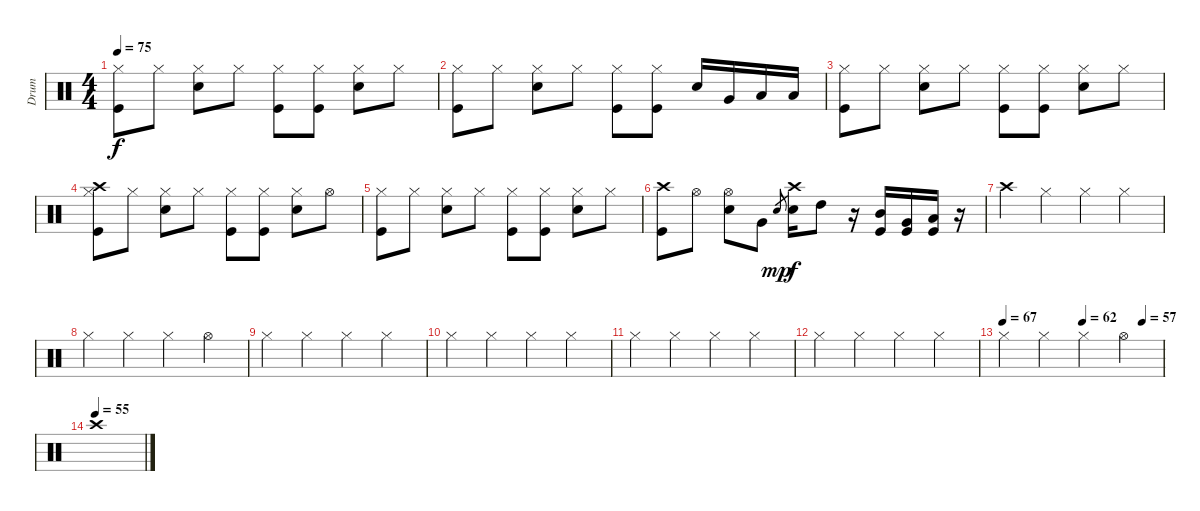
\track ("Drum" "Drum") {instrument percussion}
\staff {score}
\articulation defaults
\ts (4 4)
\tempo 75
\clef neutral
\ks c
("Hi-Hat (closed)" "Kick (hit)").8{dy f} "Hi-Hat (closed)".8 ("Hi-Hat (closed)" "Electric Snare (hit)").8 "Hi-Hat (closed)".8 ("Hi-Hat (closed)" "Kick (hit)").8 ("Hi-Hat (closed)" "Kick (hit)").8 ("Hi-Hat (closed)" "Electric Snare (hit)").8 "Hi-Hat (closed)".8 |
("Hi-Hat (closed)" "Kick (hit)").8 "Hi-Hat (closed)".8 ("Hi-Hat (closed)" "Electric Snare (hit)").8 "Hi-Hat (closed)".8 ("Hi-Hat (closed)" "Kick (hit)").8 ("Hi-Hat (closed)" "Kick (hit)").8 "Electric Snare (hit)".16 "Very Low Tom (hit)".16 "Low Floor Tom (hit)".16 "Low Floor Tom (hit)".16 |
("Hi-Hat (closed)" "Kick (hit)").8 "Hi-Hat (closed)".8 ("Hi-Hat (closed)" "Electric Snare (hit)").8 "Hi-Hat (closed)".8 ("Hi-Hat (closed)" "Kick (hit)").8 ("Hi-Hat (closed)" "Kick (hit)").8 ("Hi-Hat (closed)" "Electric Snare (hit)").8 "Hi-Hat (closed)".8 |
("Hi-Hat (closed)" "Crash high (hit)" "Kick (hit)").8 "Hi-Hat (closed)".8 ("Hi-Hat (closed)" "Electric Snare (hit)").8 "Hi-Hat (closed)".8 ("Hi-Hat (closed)" "Kick (hit)").8 ("Hi-Hat (closed)" "Kick (hit)").8 ("Hi-Hat (closed)" "Electric Snare (hit)").8 "Hi-Hat (open)".8 |
("Hi-Hat (closed)" "Kick (hit)").8 "Hi-Hat (closed)".8 ("Hi-Hat (closed)" "Electric Snare (hit)").8 "Hi-Hat (closed)".8 ("Hi-Hat (closed)" "Kick (hit)").8 ("Hi-Hat (closed)" "Kick (hit)").8 ("Hi-Hat (closed)" "Electric Snare (hit)").8 "Hi-Hat (closed)".8 |
("Crash high (hit)" "Kick (hit)").8 "Hi-Hat (open)".8 ("Hi-Hat (open)" "Snare (hit) 2").8 "Very Low Tom (hit)".8 "Electric Snare (hit)".8{gr dy mp} ("Crash high (hit)" "Electric Snare (hit)").16{dy f} "High Tom (hit)".8 r.16 ("Mid Tom (hit)" "Kick (hit)").16 ("Very Low Tom (hit)" "Kick (hit)").16 ("Low Floor Tom (hit)" "Kick (hit)").16 r.16 |
"Crash high (hit)".4 "Hi-Hat (closed)".4 "Hi-Hat (closed)".4 "Hi-Hat (closed)".4 |
"Hi-Hat (closed)".4 "Hi-Hat (closed)".4 "Hi-Hat (closed)".4 "Hi-Hat (open)".4 |
"Hi-Hat (closed)".4{volume 8} "Hi-Hat (closed)".4 "Hi-Hat (closed)".4 "Hi-Hat (closed)".4 |
"Hi-Hat (closed)".4 "Hi-Hat (closed)".4 "Hi-Hat (closed)".4 "Hi-Hat (closed)".4 |
"Hi-Hat (closed)".4 "Hi-Hat (closed)".4 "Hi-Hat (closed)".4 "Hi-Hat (closed)".4 |
"Hi-Hat (closed)".4 "Hi-Hat (closed)".4 "Hi-Hat (closed)".4 "Hi-Hat (closed)".4 |
\tempo 70
\tempo (60 0.5)
\tempo 67
\tempo (62 0.5)
\tempo (57 0.875)
"Hi-Hat (closed)".4 "Hi-Hat (closed)".4 "Hi-Hat (closed)".4 "Hi-Hat (open)".4 |
\tempo 60
\tempo (55)
"Crash high (hit)".1
